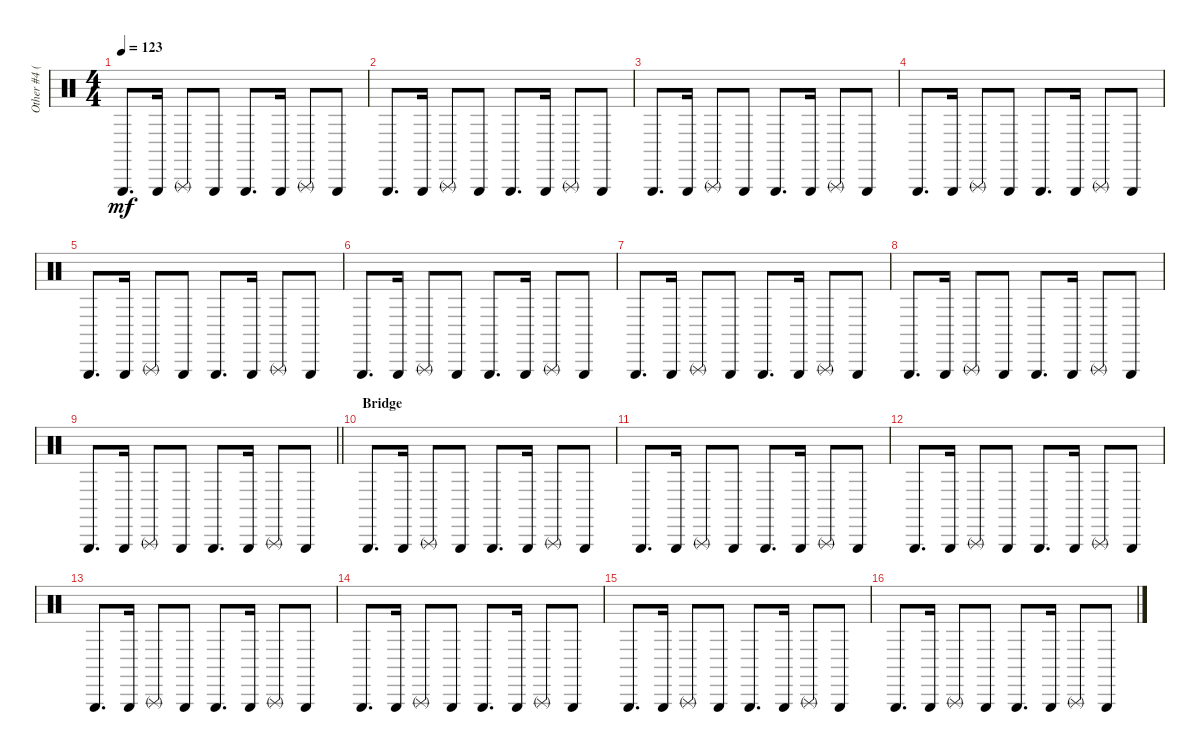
\track ("Other #4 (Triangle)" "Other #4 (") {instrument percussion}
\staff {score}
\articulation defaults
\ts (4 4)
\tempo 123
\clef neutral
\ks c "Triangle (hit)".8{d dy mf} "Triangle (hit)".16 "Triangle (rnute)".8 "Triangle (hit)".8 "Triangle (hit)".8{d} "Triangle (hit)".16 "Triangle (rnute)".8 "Triangle (hit)".8
|
"Triangle (hit)".8{d} "Triangle (hit)".16 "Triangle (rnute)".8 "Triangle (hit)".8 "Triangle (hit)".8{d} "Triangle (hit)".16 "Triangle (rnute)".8 "Triangle (hit)".8 |
"Triangle (hit)".8{d} "Triangle (hit)".16 "Triangle (rnute)".8 "Triangle (hit)".8 "Triangle (hit)".8{d} "Triangle (hit)".16 "Triangle (rnute)".8 "Triangle (hit)".8 |
"Triangle (hit)".8{d} "Triangle (hit)".16 "Triangle (rnute)".8 "Triangle (hit)".8 "Triangle (hit)".8{d} "Triangle (hit)".16 "Triangle (rnute)".8 "Triangle (hit)".8 |
"Triangle (hit)".8{d} "Triangle (hit)".16 "Triangle (rnute)".8 "Triangle (hit)".8 "Triangle (hit)".8{d} "Triangle (hit)".16 "Triangle (rnute)".8 "Triangle (hit)".8 |
"Triangle (hit)".8{d} "Triangle (hit)".16 "Triangle (rnute)".8 "Triangle (hit)".8 "Triangle (hit)".8{d} "Triangle (hit)".16 "Triangle (rnute)".8 "Triangle (hit)".8 |
"Triangle (hit)".8{d} "Triangle (hit)".16 "Triangle (rnute)".8 "Triangle (hit)".8 "Triangle (hit)".8{d} "Triangle (hit)".16 "Triangle (rnute)".8 "Triangle (hit)".8 |
"Triangle (hit)".8{d} "Triangle (hit)".16 "Triangle (rnute)".8 "Triangle (hit)".8 "Triangle (hit)".8{d} "Triangle (hit)".16 "Triangle (rnute)".8 "Triangle (hit)".8 |
\barLineRight lightlight "Triangle (hit)".8{d} "Triangle (hit)".16 "Triangle (rnute)".8 "Triangle (hit)".8 "Triangle (hit)".8{d} "Triangle (hit)".16 "Triangle (rnute)".8 "Triangle (hit)".8
|
\section ("" "Bridge")
"Triangle (hit)".8{d} "Triangle (hit)".16 "Triangle (rnute)".8 "Triangle (hit)".8 "Triangle (hit)".8{d} "Triangle (hit)".16 "Triangle (rnute)".8 "Triangle (hit)".8 |
"Triangle (hit)".8{d} "Triangle (hit)".16 "Triangle (rnute)".8 "Triangle (hit)".8 "Triangle (hit)".8{d} "Triangle (hit)".16 "Triangle (rnute)".8 "Triangle (hit)".8 |
"Triangle (hit)".8{d} "Triangle (hit)".16 "Triangle (rnute)".8 "Triangle (hit)".8 "Triangle (hit)".8{d} "Triangle (hit)".16 "Triangle (rnute)".8 "Triangle (hit)".8 |
"Triangle (hit)".8{d} "Triangle (hit)".16 "Triangle (rnute)".8 "Triangle (hit)".8 "Triangle (hit)".8{d} "Triangle (hit)".16 "Triangle (rnute)".8 "Triangle (hit)".8 |
"Triangle (hit)".8{d} "Triangle (hit)".16 "Triangle (rnute)".8 "Triangle (hit)".8 "Triangle (hit)".8{d} "Triangle (hit)".16 "Triangle (rnute)".8 "Triangle (hit)".8 |
"Triangle (hit)".8{d} "Triangle (hit)".16 "Triangle (rnute)".8 "Triangle (hit)".8 "Triangle (hit)".8{d} "Triangle (hit)".16 "Triangle (rnute)".8 "Triangle (hit)".8 |
"Triangle (hit)".8{d} "Triangle (hit)".16 "Triangle (rnute)".8 "Triangle (hit)".8 "Triangle (hit)".8{d} "Triangle (hit)".16 "Triangle (rnute)".8 "Triangle (hit)".8
